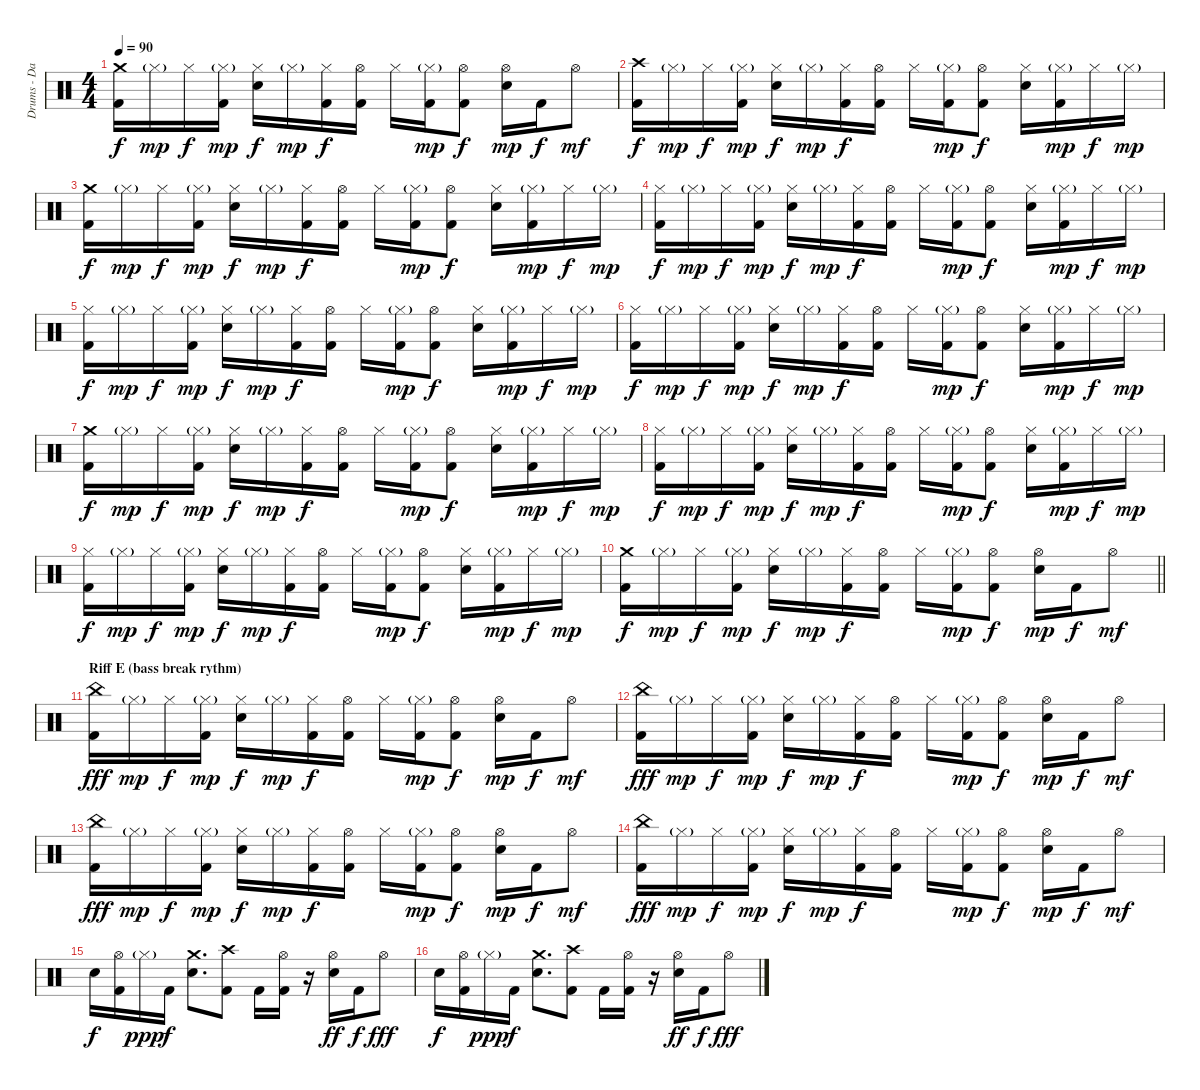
\track ("Drums - Danny Carey" "Drums - Da") {instrument percussion}
\staff {score}
\articulation defaults
\ts (4 4)
\tempo 90
\clef neutral
\ks c
("Crash medium (hit)" "Kick (hit) 2").16{dy f} "Hi-Hat (closed)"{g}.16{dy mp} "Hi-Hat (closed)".16{dy f} ("Kick (hit) 2" "Hi-Hat (closed)"{g}).16{dy mp} ("Electric Snare (hit)" "Hi-Hat (closed)").16{dy f} "Hi-Hat (closed)"{g}.16{dy mp} ("Kick (hit) 2" "Hi-Hat (closed)").16{dy f} ("Kick (hit) 2" "Hi-Hat (open)").16 "Hi-Hat (closed)".16 ("Kick (hit) 2" "Hi-Hat (closed)"{g}).16{dy mp} ("Kick (hit) 2" "Hi-Hat (open)").8{dy f} ("Electric Snare (hit)" "Hi-Hat (open)").16{dy mp} "Kick (hit) 2".16{dy f} "Hi-Hat (open)".8{dy mf} |
("Crash high (hit)" "Kick (hit) 2").16{dy f} "Hi-Hat (closed)"{g}.16{dy mp} "Hi-Hat (closed)".16{dy f} ("Kick (hit) 2" "Hi-Hat (closed)"{g}).16{dy mp} ("Electric Snare (hit)" "Hi-Hat (closed)").16{dy f} "Hi-Hat (closed)"{g}.16{dy mp} ("Kick (hit) 2" "Hi-Hat (closed)").16{dy f} ("Kick (hit) 2" "Hi-Hat (open)").16 "Hi-Hat (closed)".16 ("Kick (hit) 2" "Hi-Hat (closed)"{g}).16{dy mp} ("Kick (hit) 2" "Hi-Hat (open)").8{dy f} ("Electric Snare (hit)" "Hi-Hat (closed)").16 ("Kick (hit) 2" "Hi-Hat (closed)"{g}).16{dy mp} "Hi-Hat (closed)".16{dy f} "Hi-Hat (closed)"{g}.16{dy mp} |
("Crash medium (hit)" "Kick (hit) 2").16{dy f} "Hi-Hat (closed)"{g}.16{dy mp} "Hi-Hat (closed)".16{dy f} ("Kick (hit) 2" "Hi-Hat (closed)"{g}).16{dy mp} ("Electric Snare (hit)" "Hi-Hat (closed)").16{dy f} "Hi-Hat (closed)"{g}.16{dy mp} ("Kick (hit) 2" "Hi-Hat (closed)").16{dy f} ("Kick (hit) 2" "Hi-Hat (open)").16 "Hi-Hat (closed)".16 ("Kick (hit) 2" "Hi-Hat (closed)"{g}).16{dy mp} ("Kick (hit) 2" "Hi-Hat (open)").8{dy f} ("Electric Snare (hit)" "Hi-Hat (closed)").16 ("Kick (hit) 2" "Hi-Hat (closed)"{g}).16{dy mp} "Hi-Hat (closed)".16{dy f} "Hi-Hat (closed)"{g}.16{dy mp} |
("Kick (hit) 2" "Hi-Hat (closed)").16{dy f} "Hi-Hat (closed)"{g}.16{dy mp} "Hi-Hat (closed)".16{dy f} ("Kick (hit) 2" "Hi-Hat (closed)"{g}).16{dy mp} ("Electric Snare (hit)" "Hi-Hat (closed)").16{dy f} "Hi-Hat (closed)"{g}.16{dy mp} ("Kick (hit) 2" "Hi-Hat (closed)").16{dy f} ("Kick (hit) 2" "Hi-Hat (open)").16 "Hi-Hat (closed)".16 ("Kick (hit) 2" "Hi-Hat (closed)"{g}).16{dy mp} ("Kick (hit) 2" "Hi-Hat (open)").8{dy f} ("Electric Snare (hit)" "Hi-Hat (closed)").16 ("Kick (hit) 2" "Hi-Hat (closed)"{g}).16{dy mp} "Hi-Hat (closed)".16{dy f} "Hi-Hat (closed)"{g}.16{dy mp} |
("Kick (hit) 2" "Hi-Hat (closed)").16{dy f} "Hi-Hat (closed)"{g}.16{dy mp} "Hi-Hat (closed)".16{dy f} ("Kick (hit) 2" "Hi-Hat (closed)"{g}).16{dy mp} ("Electric Snare (hit)" "Hi-Hat (closed)").16{dy f} "Hi-Hat (closed)"{g}.16{dy mp} ("Kick (hit) 2" "Hi-Hat (closed)").16{dy f} ("Kick (hit) 2" "Hi-Hat (open)").16 "Hi-Hat (closed)".16 ("Kick (hit) 2" "Hi-Hat (closed)"{g}).16{dy mp} ("Kick (hit) 2" "Hi-Hat (open)").8{dy f} ("Electric Snare (hit)" "Hi-Hat (closed)").16 ("Kick (hit) 2" "Hi-Hat (closed)"{g}).16{dy mp} "Hi-Hat (closed)".16{dy f} "Hi-Hat (closed)"{g}.16{dy mp} |
("Kick (hit) 2" "Hi-Hat (closed)").16{dy f} "Hi-Hat (closed)"{g}.16{dy mp} "Hi-Hat (closed)".16{dy f} ("Kick (hit) 2" "Hi-Hat (closed)"{g}).16{dy mp} ("Electric Snare (hit)" "Hi-Hat (closed)").16{dy f} "Hi-Hat (closed)"{g}.16{dy mp} ("Kick (hit) 2" "Hi-Hat (closed)").16{dy f} ("Kick (hit) 2" "Hi-Hat (open)").16 "Hi-Hat (closed)".16 ("Kick (hit) 2" "Hi-Hat (closed)"{g}).16{dy mp} ("Kick (hit) 2" "Hi-Hat (open)").8{dy f} ("Electric Snare (hit)" "Hi-Hat (closed)").16 ("Kick (hit) 2" "Hi-Hat (closed)"{g}).16{dy mp} "Hi-Hat (closed)".16{dy f} "Hi-Hat (closed)"{g}.16{dy mp} |
("Crash medium (hit)" "Kick (hit) 2").16{dy f} "Hi-Hat (closed)"{g}.16{dy mp} "Hi-Hat (closed)".16{dy f} ("Kick (hit) 2" "Hi-Hat (closed)"{g}).16{dy mp} ("Electric Snare (hit)" "Hi-Hat (closed)").16{dy f} "Hi-Hat (closed)"{g}.16{dy mp} ("Kick (hit) 2" "Hi-Hat (closed)").16{dy f} ("Kick (hit) 2" "Hi-Hat (open)").16 "Hi-Hat (closed)".16 ("Kick (hit) 2" "Hi-Hat (closed)"{g}).16{dy mp} ("Kick (hit) 2" "Hi-Hat (open)").8{dy f} ("Electric Snare (hit)" "Hi-Hat (closed)").16 ("Kick (hit) 2" "Hi-Hat (closed)"{g}).16{dy mp} "Hi-Hat (closed)".16{dy f} "Hi-Hat (closed)"{g}.16{dy mp} |
("Kick (hit) 2" "Hi-Hat (closed)").16{dy f} "Hi-Hat (closed)"{g}.16{dy mp} "Hi-Hat (closed)".16{dy f} ("Kick (hit) 2" "Hi-Hat (closed)"{g}).16{dy mp} ("Electric Snare (hit)" "Hi-Hat (closed)").16{dy f} "Hi-Hat (closed)"{g}.16{dy mp} ("Kick (hit) 2" "Hi-Hat (closed)").16{dy f} ("Kick (hit) 2" "Hi-Hat (open)").16 "Hi-Hat (closed)".16 ("Kick (hit) 2" "Hi-Hat (closed)"{g}).16{dy mp} ("Kick (hit) 2" "Hi-Hat (open)").8{dy f} ("Electric Snare (hit)" "Hi-Hat (closed)").16 ("Kick (hit) 2" "Hi-Hat (closed)"{g}).16{dy mp} "Hi-Hat (closed)".16{dy f} "Hi-Hat (closed)"{g}.16{dy mp} |
("Kick (hit) 2" "Hi-Hat (closed)").16{dy f} "Hi-Hat (closed)"{g}.16{dy mp} "Hi-Hat (closed)".16{dy f} ("Kick (hit) 2" "Hi-Hat (closed)"{g}).16{dy mp} ("Electric Snare (hit)" "Hi-Hat (closed)").16{dy f} "Hi-Hat (closed)"{g}.16{dy mp} ("Kick (hit) 2" "Hi-Hat (closed)").16{dy f} ("Kick (hit) 2" "Hi-Hat (open)").16 "Hi-Hat (closed)".16 ("Kick (hit) 2" "Hi-Hat (closed)"{g}).16{dy mp} ("Kick (hit) 2" "Hi-Hat (open)").8{dy f} ("Electric Snare (hit)" "Hi-Hat (closed)").16 ("Kick (hit) 2" "Hi-Hat (closed)"{g}).16{dy mp} "Hi-Hat (closed)".16{dy f} "Hi-Hat (closed)"{g}.16{dy mp} |
\barLineRight lightlight
("Crash medium (hit)" "Kick (hit) 2").16{dy f} "Hi-Hat (closed)"{g}.16{dy mp} "Hi-Hat (closed)".16{dy f} ("Kick (hit) 2" "Hi-Hat (closed)"{g}).16{dy mp} ("Electric Snare (hit)" "Hi-Hat (closed)").16{dy f} "Hi-Hat (closed)"{g}.16{dy mp} ("Kick (hit) 2" "Hi-Hat (closed)").16{dy f} ("Kick (hit) 2" "Hi-Hat (open)").16 "Hi-Hat (closed)".16 ("Kick (hit) 2" "Hi-Hat (closed)"{g}).16{dy mp} ("Kick (hit) 2" "Hi-Hat (open)").8{dy f} ("Electric Snare (hit)" "Hi-Hat (open)").16{dy mp} "Kick (hit) 2".16{dy f} "Hi-Hat (open)".8{dy mf} |
\section ("" "Riff E (bass break rythm)")
("China (hit)" "Kick (hit) 2").16{dy fff} "Hi-Hat (closed)"{g}.16{dy mp} "Hi-Hat (closed)".16{dy f} ("Kick (hit) 2" "Hi-Hat (closed)"{g}).16{dy mp} ("Electric Snare (hit)" "Hi-Hat (closed)").16{dy f} "Hi-Hat (closed)"{g}.16{dy mp} ("Kick (hit) 2" "Hi-Hat (closed)").16{dy f} ("Kick (hit) 2" "Hi-Hat (open)").16 "Hi-Hat (closed)".16 ("Kick (hit) 2" "Hi-Hat (closed)"{g}).16{dy mp} ("Kick (hit) 2" "Hi-Hat (open)").8{dy f} ("Electric Snare (hit)" "Hi-Hat (open)").16{dy mp} "Kick (hit) 2".16{dy f} "Hi-Hat (open)".8{dy mf} |
("China (hit)" "Kick (hit) 2").16{dy fff} "Hi-Hat (closed)"{g}.16{dy mp} "Hi-Hat (closed)".16{dy f} ("Kick (hit) 2" "Hi-Hat (closed)"{g}).16{dy mp} ("Electric Snare (hit)" "Hi-Hat (closed)").16{dy f} "Hi-Hat (closed)"{g}.16{dy mp} ("Kick (hit) 2" "Hi-Hat (closed)").16{dy f} ("Kick (hit) 2" "Hi-Hat (open)").16 "Hi-Hat (closed)".16 ("Kick (hit) 2" "Hi-Hat (closed)"{g}).16{dy mp} ("Kick (hit) 2" "Hi-Hat (open)").8{dy f} ("Electric Snare (hit)" "Hi-Hat (open)").16{dy mp} "Kick (hit) 2".16{dy f} "Hi-Hat (open)".8{dy mf} |
("China (hit)" "Kick (hit) 2").16{dy fff} "Hi-Hat (closed)"{g}.16{dy mp} "Hi-Hat (closed)".16{dy f} ("Kick (hit) 2" "Hi-Hat (closed)"{g}).16{dy mp} ("Electric Snare (hit)" "Hi-Hat (closed)").16{dy f} "Hi-Hat (closed)"{g}.16{dy mp} ("Kick (hit) 2" "Hi-Hat (closed)").16{dy f} ("Kick (hit) 2" "Hi-Hat (open)").16 "Hi-Hat (closed)".16 ("Kick (hit) 2" "Hi-Hat (closed)"{g}).16{dy mp} ("Kick (hit) 2" "Hi-Hat (open)").8{dy f} ("Electric Snare (hit)" "Hi-Hat (open)").16{dy mp} "Kick (hit) 2".16{dy f} "Hi-Hat (open)".8{dy mf} |
("China (hit)" "Kick (hit) 2").16{dy fff} "Hi-Hat (closed)"{g}.16{dy mp} "Hi-Hat (closed)".16{dy f} ("Kick (hit) 2" "Hi-Hat (closed)"{g}).16{dy mp} ("Electric Snare (hit)" "Hi-Hat (closed)").16{dy f} "Hi-Hat (closed)"{g}.16{dy mp} ("Kick (hit) 2" "Hi-Hat (closed)").16{dy f} ("Kick (hit) 2" "Hi-Hat (open)").16 "Hi-Hat (closed)".16 ("Kick (hit) 2" "Hi-Hat (closed)"{g}).16{dy mp} ("Kick (hit) 2" "Hi-Hat (open)").8{dy f} ("Electric Snare (hit)" "Hi-Hat (open)").16{dy mp} "Kick (hit) 2".16{dy f} "Hi-Hat (open)".8{dy mf} |
"Electric Snare (hit)".16{dy f} ("Kick (hit) 2" "Hi-Hat (open)").16 "Hi-Hat (closed)"{g}.16{dy ppp} "Kick (hit) 2".16{dy f} ("Crash medium (hit)" "Electric Snare (hit)").8{d} ("Crash high (hit)" "Kick (hit) 2").8 "Kick (hit) 2".16 ("Kick (hit) 2" "Hi-Hat (open)").16 r.16 ("Electric Snare (hit)" "Hi-Hat (open)").16{dy ff} "Kick (hit) 2".16{dy f} "Hi-Hat (open)".8{dy fff} |
"Electric Snare (hit)".16{dy f} ("Kick (hit) 2" "Hi-Hat (open)").16 "Hi-Hat (closed)"{g}.16{dy ppp} "Kick (hit) 2".16{dy f} ("Crash medium (hit)" "Electric Snare (hit)").8{d} ("Crash high (hit)" "Kick (hit) 2").8 "Kick (hit) 2".16 ("Kick (hit) 2" "Hi-Hat (open)").16 r.16 ("Electric Snare (hit)" "Hi-Hat (open)").16{dy ff} "Kick (hit) 2".16{dy f} "Hi-Hat (open)".8{dy fff}
